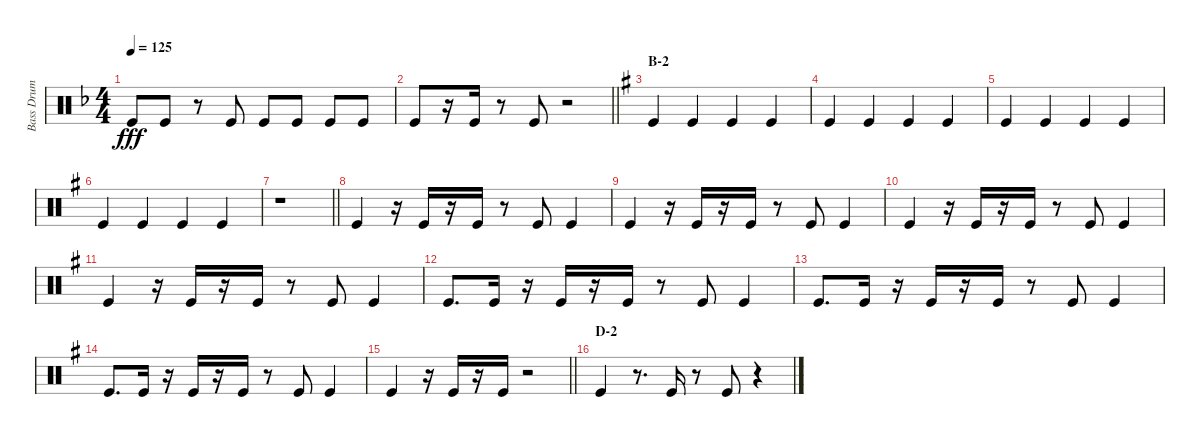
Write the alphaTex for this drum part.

\track ("Bass Drum" "Bass Drum") {instrument percussion}
\staff {score}
\articulation defaults
\ts (4 4)
\tempo 125
\clef neutral
\ks f "Kick (hit)".8{dy fff} "Kick (hit)".8
r.8 "Kick (hit)".8 "Kick (hit)".8 "Kick (hit)".8 "Kick (hit)".8 "Kick (hit)".8 |
\barLineRight lightlight "Kick (hit)".8
r.16 "Kick (hit)".16 r.8 "Kick (hit)".8 r.2 |
\section ("" "B-2")
\ks g "Kick (hit)".4 "Kick (hit)".4 "Kick (hit)".4 "Kick (hit)".4
|
"Kick (hit)".4 "Kick (hit)".4 "Kick (hit)".4 "Kick (hit)".4 |
"Kick (hit)".4 "Kick (hit)".4 "Kick (hit)".4 "Kick (hit)".4 |
"Kick (hit)".4 "Kick (hit)".4 "Kick (hit)".4 "Kick (hit)".4 |
\barLineRight lightlight
r.1 |
"Kick (hit)".4 r.16 "Kick (hit)".16 r.16 "Kick (hit)".16 r.8 "Kick (hit)".8 "Kick (hit)".4 |
"Kick (hit)".4 r.16 "Kick (hit)".16 r.16 "Kick (hit)".16 r.8 "Kick (hit)".8 "Kick (hit)".4 |
"Kick (hit)".4 r.16 "Kick (hit)".16 r.16 "Kick (hit)".16 r.8 "Kick (hit)".8 "Kick (hit)".4 |
"Kick (hit)".4 r.16 "Kick (hit)".16 r.16 "Kick (hit)".16 r.8 "Kick (hit)".8 "Kick (hit)".4 |
"Kick (hit)".8{d} "Kick (hit)".16 r.16 "Kick (hit)".16 r.16 "Kick (hit)".16 r.8 "Kick (hit)".8 "Kick (hit)".4 |
"Kick (hit)".8{d} "Kick (hit)".16 r.16 "Kick (hit)".16 r.16 "Kick (hit)".16 r.8 "Kick (hit)".8 "Kick (hit)".4 |
"Kick (hit)".8{d} "Kick (hit)".16 r.16 "Kick (hit)".16 r.16 "Kick (hit)".16 r.8 "Kick (hit)".8 "Kick (hit)".4 |
\barLineRight lightlight "Kick (hit)".4
r.16 "Kick (hit)".16 r.16 "Kick (hit)".16 r.2 |
\section ("" "D-2")
"Kick (hit)".4 r.8{d} "Kick (hit)".16 r.8 "Kick (hit)".8 r.4
